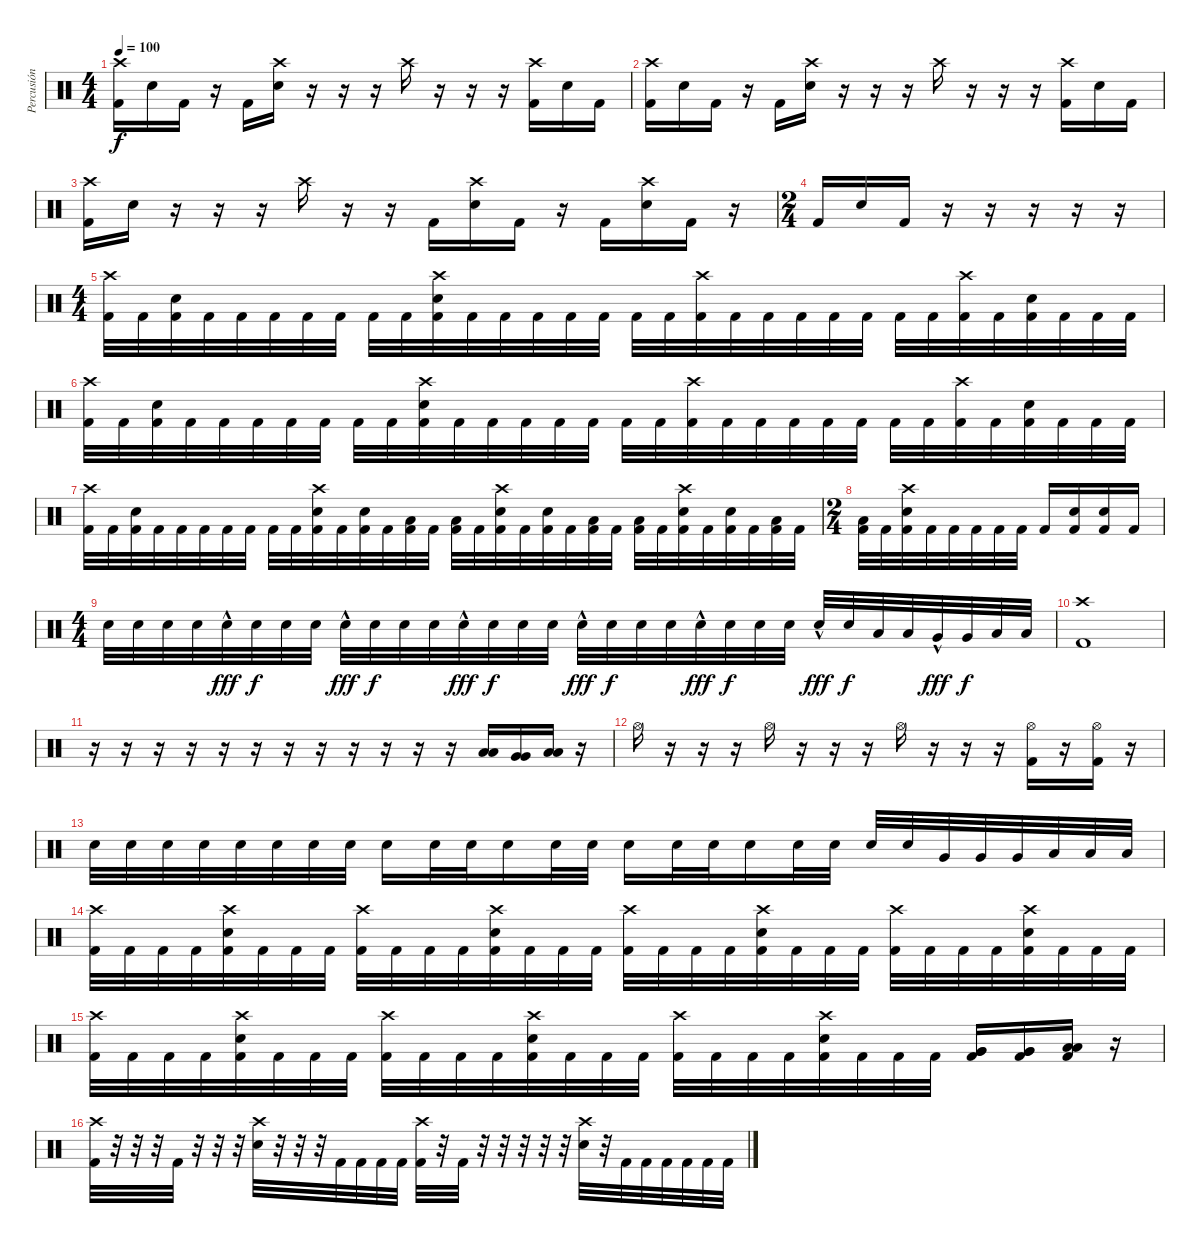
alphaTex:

\track ("Percusión" "Percusión") {instrument percussion}
\staff {score}
\articulation defaults
\ts (4 4)
\tempo 100
\clef neutral
\ks c
("Crash high (hit)" "Kick (hit) 2").16{dy f} "Electric Snare (hit)".16 "Kick (hit) 2".16 r.16 "Kick (hit) 2".16 ("Crash high (hit)" "Electric Snare (hit)").16 r.16 r.16 r.16 "Crash high (hit)".16 r.16 r.16 r.16 ("Crash high (hit)" "Kick (hit) 2").16 "Electric Snare (hit)".16 "Kick (hit) 2".16 |
("Crash high (hit)" "Kick (hit) 2").16 "Electric Snare (hit)".16 "Kick (hit) 2".16 r.16 "Kick (hit) 2".16 ("Crash high (hit)" "Electric Snare (hit)").16 r.16 r.16 r.16 "Crash high (hit)".16 r.16 r.16 r.16 ("Crash high (hit)" "Kick (hit) 2").16 "Electric Snare (hit)".16 "Kick (hit) 2".16 |
("Crash high (hit)" "Kick (hit) 2").16 "Electric Snare (hit)".16 r.16 r.16 r.16 "Crash high (hit)".16 r.16 r.16 "Kick (hit) 2".16 ("Crash high (hit)" "Electric Snare (hit)").16 "Kick (hit) 2".16 r.16 "Kick (hit) 2".16 ("Crash high (hit)" "Electric Snare (hit)").16 "Kick (hit) 2".16 r.16 |
\ts (2 4)
"Kick (hit) 2".16 "Electric Snare (hit)".16 "Kick (hit) 2".16 r.16 r.16 r.16 r.16 r.16 |
\ts (4 4)
("Crash high (hit)" "Kick (hit) 2").32 "Kick (hit) 2".32 ("Electric Snare (hit)" "Kick (hit) 2").32 "Kick (hit) 2".32 "Kick (hit) 2".32 "Kick (hit) 2".32 "Kick (hit) 2".32 "Kick (hit) 2".32 "Kick (hit) 2".32 "Kick (hit) 2".32 ("Crash high (hit)" "Electric Snare (hit)" "Kick (hit) 2").32 "Kick (hit) 2".32 "Kick (hit) 2".32 "Kick (hit) 2".32 "Kick (hit) 2".32 "Kick (hit) 2".32 "Kick (hit) 2".32 "Kick (hit) 2".32 ("Crash high (hit)" "Kick (hit) 2").32 "Kick (hit) 2".32 "Kick (hit) 2".32 "Kick (hit) 2".32 "Kick (hit) 2".32 "Kick (hit) 2".32 "Kick (hit) 2".32 "Kick (hit) 2".32 ("Crash high (hit)" "Kick (hit) 2").32 "Kick (hit) 2".32 ("Electric Snare (hit)" "Kick (hit) 2").32 "Kick (hit) 2".32 "Kick (hit) 2".32 "Kick (hit) 2".32 |
("Crash high (hit)" "Kick (hit) 2").32 "Kick (hit) 2".32 ("Electric Snare (hit)" "Kick (hit) 2").32 "Kick (hit) 2".32 "Kick (hit) 2".32 "Kick (hit) 2".32 "Kick (hit) 2".32 "Kick (hit) 2".32 "Kick (hit) 2".32 "Kick (hit) 2".32 ("Crash high (hit)" "Electric Snare (hit)" "Kick (hit) 2").32 "Kick (hit) 2".32 "Kick (hit) 2".32 "Kick (hit) 2".32 "Kick (hit) 2".32 "Kick (hit) 2".32 "Kick (hit) 2".32 "Kick (hit) 2".32 ("Crash high (hit)" "Kick (hit) 2").32 "Kick (hit) 2".32 "Kick (hit) 2".32 "Kick (hit) 2".32 "Kick (hit) 2".32 "Kick (hit) 2".32 "Kick (hit) 2".32 "Kick (hit) 2".32 ("Crash high (hit)" "Kick (hit) 2").32 "Kick (hit) 2".32 ("Electric Snare (hit)" "Kick (hit) 2").32 "Kick (hit) 2".32 "Kick (hit) 2".32 "Kick (hit) 2".32 |
("Crash high (hit)" "Kick (hit) 2").32 "Kick (hit) 2".32 ("Electric Snare (hit)" "Kick (hit) 2").32 "Kick (hit) 2".32 "Kick (hit) 2".32 "Kick (hit) 2".32 "Kick (hit) 2".32 "Kick (hit) 2".32 "Kick (hit) 2".32 "Kick (hit) 2".32 ("Crash high (hit)" "Electric Snare (hit)" "Kick (hit) 2").32 "Kick (hit) 2".32 ("Electric Snare (hit)" "Kick (hit) 2").32 "Kick (hit) 2".32 ("Low Tom (hit)" "Kick (hit) 2").32 "Kick (hit) 2".32 ("Low Tom (hit)" "Kick (hit) 2").32 "Kick (hit) 2".32 ("Crash high (hit)" "Electric Snare (hit)" "Kick (hit) 2").32 "Kick (hit) 2".32 ("Electric Snare (hit)" "Kick (hit) 2").32 "Kick (hit) 2".32 ("Low Tom (hit)" "Kick (hit) 2").32 "Kick (hit) 2".32 ("Low Tom (hit)" "Kick (hit) 2").32 "Kick (hit) 2".32 ("Crash high (hit)" "Electric Snare (hit)" "Kick (hit) 2").32 "Kick (hit) 2".32 ("Electric Snare (hit)" "Kick (hit) 2").32 "Kick (hit) 2".32 ("Low Tom (hit)" "Kick (hit) 2").32 "Kick (hit) 2".32 |
\ts (2 4)
("Low Tom (hit)" "Kick (hit) 2").32 "Kick (hit) 2".32 ("Crash high (hit)" "Electric Snare (hit)" "Kick (hit) 2").32 "Kick (hit) 2".32 "Kick (hit) 2".32 "Kick (hit) 2".32 "Kick (hit) 2".32 "Kick (hit) 2".32 "Kick (hit) 2".16 ("Electric Snare (hit)" "Kick (hit) 2").16 ("Electric Snare (hit)" "Kick (hit) 2").16 "Kick (hit) 2".16 |
\ts (4 4)
"Electric Snare (hit)".32 "Electric Snare (hit)".32 "Electric Snare (hit)".32 "Electric Snare (hit)".32 "Electric Snare (hit)"{hac}.32{dy fff} "Electric Snare (hit)".32{dy f} "Electric Snare (hit)".32 "Electric Snare (hit)".32 "Electric Snare (hit)"{hac}.32{dy fff} "Electric Snare (hit)".32{dy f} "Electric Snare (hit)".32 "Electric Snare (hit)".32 "Electric Snare (hit)"{hac}.32{dy fff} "Electric Snare (hit)".32{dy f} "Electric Snare (hit)".32 "Electric Snare (hit)".32 "Electric Snare (hit)"{hac}.32{dy fff} "Electric Snare (hit)".32{dy f} "Electric Snare (hit)".32 "Electric Snare (hit)".32 "Electric Snare (hit)"{hac}.32{dy fff} "Electric Snare (hit)".32{dy f} "Electric Snare (hit)".32 "Electric Snare (hit)".32 "Electric Snare (hit)"{hac}.32{dy fff} "Electric Snare (hit)".32{dy f} "Low Tom (hit)".32 "Low Tom (hit)".32 "Very Low Tom (hit)"{hac}.32{dy fff} "Very Low Tom (hit)".32{dy f} "Low Floor Tom (hit)".32 "Low Floor Tom (hit)".32 |
("Crash high (hit)" "Kick (hit) 2").1 |
r.16 r.16 r.16 r.16 r.16 r.16 r.16 r.16 r.16 r.16 r.16 r.16 ("Low Tom (hit)" "Low Tom (hit)").16 ("Very Low Tom (hit)" "Very Low Tom (hit)").16 ("Low Floor Tom (hit)" "Low Floor Tom (hit)").16 r.16 |
"Hi-Hat (open)".16 r.16 r.16 r.16 "Hi-Hat (open)".16 r.16 r.16 r.16 "Hi-Hat (open)".16 r.16 r.16 r.16 ("Hi-Hat (open)" "Kick (hit) 2").16 r.16 ("Hi-Hat (open)" "Kick (hit) 2").16 r.16 |
"Electric Snare (hit)".32 "Electric Snare (hit)".32 "Electric Snare (hit)".32 "Electric Snare (hit)".32 "Electric Snare (hit)".32 "Electric Snare (hit)".32 "Electric Snare (hit)".32 "Electric Snare (hit)".32 "Electric Snare (hit)".16 "Electric Snare (hit)".32 "Electric Snare (hit)".32 "Electric Snare (hit)".16 "Electric Snare (hit)".32 "Electric Snare (hit)".32 "Electric Snare (hit)".16 "Electric Snare (hit)".32 "Electric Snare (hit)".32 "Electric Snare (hit)".16 "Electric Snare (hit)".32 "Electric Snare (hit)".32 "Electric Snare (hit)".32 "Electric Snare (hit)".32 "Very Low Tom (hit)".32 "Very Low Tom (hit)".32 "Very Low Tom (hit)".32 "Low Floor Tom (hit)".32 "Low Floor Tom (hit)".32 "Low Floor Tom (hit)".32 |
("Crash high (hit)" "Kick (hit) 2").32 "Kick (hit) 2".32 "Kick (hit) 2".32 "Kick (hit) 2".32 ("Crash high (hit)" "Electric Snare (hit)" "Kick (hit) 2").32 "Kick (hit) 2".32 "Kick (hit) 2".32 "Kick (hit) 2".32 ("Crash high (hit)" "Kick (hit) 2").32 "Kick (hit) 2".32 "Kick (hit) 2".32 "Kick (hit) 2".32 ("Crash high (hit)" "Electric Snare (hit)" "Kick (hit) 2").32 "Kick (hit) 2".32 "Kick (hit) 2".32 "Kick (hit) 2".32 ("Crash high (hit)" "Kick (hit) 2").32 "Kick (hit) 2".32 "Kick (hit) 2".32 "Kick (hit) 2".32 ("Crash high (hit)" "Electric Snare (hit)" "Kick (hit) 2").32 "Kick (hit) 2".32 "Kick (hit) 2".32 "Kick (hit) 2".32 ("Crash high (hit)" "Kick (hit) 2").32 "Kick (hit) 2".32 "Kick (hit) 2".32 "Kick (hit) 2".32 ("Crash high (hit)" "Electric Snare (hit)" "Kick (hit) 2").32 "Kick (hit) 2".32 "Kick (hit) 2".32 "Kick (hit) 2".32 |
("Crash high (hit)" "Kick (hit) 2").32 "Kick (hit) 2".32 "Kick (hit) 2".32 "Kick (hit) 2".32 ("Crash high (hit)" "Electric Snare (hit)" "Kick (hit) 2").32 "Kick (hit) 2".32 "Kick (hit) 2".32 "Kick (hit) 2".32 ("Crash high (hit)" "Kick (hit) 2").32 "Kick (hit) 2".32 "Kick (hit) 2".32 "Kick (hit) 2".32 ("Crash high (hit)" "Electric Snare (hit)" "Kick (hit) 2").32 "Kick (hit) 2".32 "Kick (hit) 2".32 "Kick (hit) 2".32 ("Crash high (hit)" "Kick (hit) 2").32 "Kick (hit) 2".32 "Kick (hit) 2".32 "Kick (hit) 2".32 ("Crash high (hit)" "Electric Snare (hit)" "Kick (hit) 2").32 "Kick (hit) 2".32 "Kick (hit) 2".32 "Kick (hit) 2".32 ("Very Low Tom (hit)" "Very Low Tom (hit)" "Kick (hit) 2").16 ("Very Low Tom (hit)" "Very Low Tom (hit)" "Kick (hit) 2").16 ("Low Tom (hit)" "Low Tom (hit)" "Kick (hit) 2").16 r.16 |
("Crash high (hit)" "Kick (hit) 2").32 r.32 r.32 r.32 "Kick (hit) 2".32 r.32 r.32 r.32 ("Crash high (hit)" "Electric Snare (hit)").32 r.32 r.32 r.32 "Kick (hit) 2".32 "Kick (hit) 2".32 "Kick (hit) 2".32 "Kick (hit) 2".32 ("Crash high (hit)" "Kick (hit) 2").32 r.32 "Kick (hit) 2".32 r.32 r.32 r.32 r.32 r.32 ("Crash high (hit)" "Electric Snare (hit)").32 r.32 "Kick (hit) 2".32 "Kick (hit) 2".32 "Kick (hit) 2".32 "Kick (hit) 2".32 "Kick (hit) 2".32 "Kick (hit) 2".32
